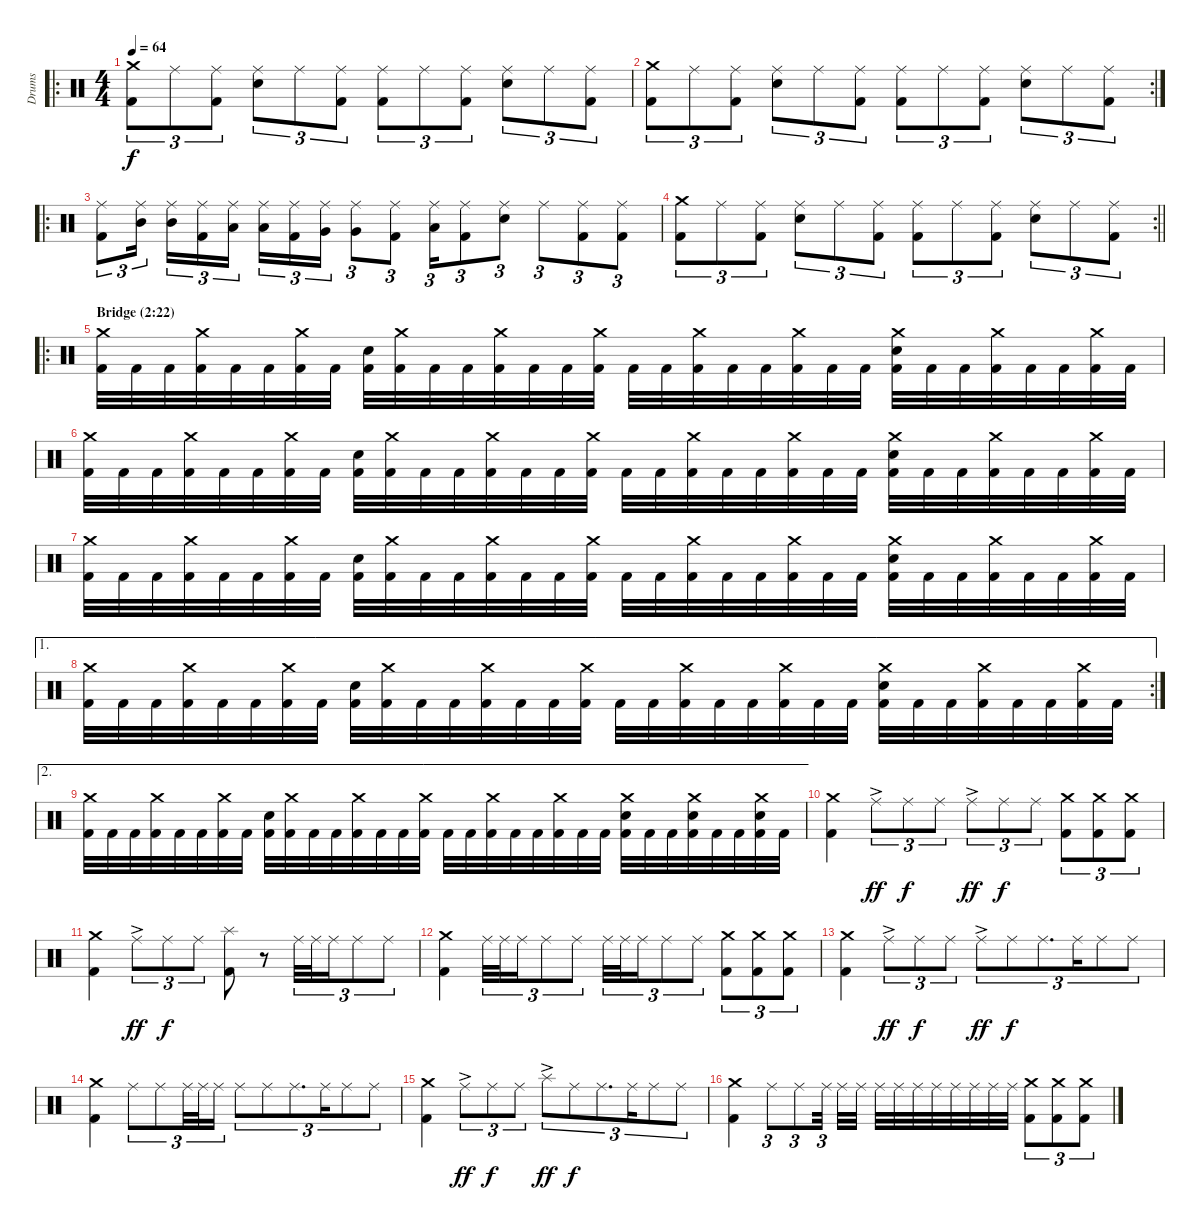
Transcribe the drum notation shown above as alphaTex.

\track ("Drums" "Drums") {instrument percussion}
\staff {score}
\articulation defaults
\ro
\ts (4 4)
\tempo 64
\clef neutral
\ks c
("Crash medium (hit)" "Kick (hit) 2").8{tu (3 2) dy f} "Ride (middle)".8{tu (3 2)} ("Ride (middle)" "Kick (hit) 2").8{tu (3 2)} ("Ride (middle)" "Electric Snare (hit)").8{tu (3 2)} "Ride (middle)".8{tu (3 2)} ("Ride (middle)" "Kick (hit) 2").8{tu (3 2)} ("Ride (middle)" "Kick (hit) 2").8{tu (3 2)} "Ride (middle)".8{tu (3 2)} ("Ride (middle)" "Kick (hit) 2").8{tu (3 2)} ("Ride (middle)" "Electric Snare (hit)").8{tu (3 2)} "Ride (middle)".8{tu (3 2)} ("Ride (middle)" "Kick (hit) 2").8{tu (3 2)} |
\rc 2
("Crash medium (hit)" "Kick (hit) 2").8{tu (3 2)} "Ride (middle)".8{tu (3 2)} ("Ride (middle)" "Kick (hit) 2").8{tu (3 2)} ("Ride (middle)" "Electric Snare (hit)").8{tu (3 2)} "Ride (middle)".8{tu (3 2)} ("Ride (middle)" "Kick (hit) 2").8{tu (3 2)} ("Ride (middle)" "Kick (hit) 2").8{tu (3 2)} "Ride (middle)".8{tu (3 2)} ("Ride (middle)" "Kick (hit) 2").8{tu (3 2)} ("Ride (middle)" "Electric Snare (hit)").8{tu (3 2)} "Ride (middle)".8{tu (3 2)} ("Ride (middle)" "Kick (hit) 2").8{tu (3 2)} |
\ro
("Ride (middle)" "Kick (hit) 2").8{tu (3 2)} ("Ride (middle)" "Mid Tom (hit)").16{tu (3 2) beam splitsecondary} ("Ride (middle)" "Mid Tom (hit)").16{tu (3 2)} ("Ride (middle)" "Kick (hit) 2").16{tu (3 2)} ("Ride (middle)" "Low Tom (hit)").16{tu (3 2)} ("Ride (middle)" "Low Tom (hit)").16{tu (3 2)} ("Ride (middle)" "Kick (hit) 2").16{tu (3 2)} ("Ride (middle)" "Very Low Tom (hit)").16{tu (3 2)} ("Ride (middle)" "Very Low Tom (hit)").8{tu (3 2)} ("Ride (middle)" "Kick (hit) 2").8{tu (3 2)} ("Ride (middle)" "Low Floor Tom (hit)").16{tu (3 2)} ("Ride (middle)" "Kick (hit) 2").8{tu (3 2)} ("Ride (middle)" "Electric Snare (hit)").8{tu (3 2)} "Ride (middle)".8{tu (3 2)} ("Ride (middle)" "Kick (hit) 2").8{tu (3 2)} ("Ride (middle)" "Kick (hit) 2").8{tu (3 2)} |
\rc 2
\barLineRight lightlight
("Crash medium (hit)" "Kick (hit) 2").8{tu (3 2)} "Ride (middle)".8{tu (3 2)} ("Ride (middle)" "Kick (hit) 2").8{tu (3 2)} ("Ride (middle)" "Electric Snare (hit)").8{tu (3 2)} "Ride (middle)".8{tu (3 2)} ("Ride (middle)" "Kick (hit) 2").8{tu (3 2)} ("Ride (middle)" "Kick (hit) 2").8{tu (3 2)} "Ride (middle)".8{tu (3 2)} ("Ride (middle)" "Kick (hit) 2").8{tu (3 2)} ("Ride (middle)" "Electric Snare (hit)").8{tu (3 2)} "Ride (middle)".8{tu (3 2)} ("Ride (middle)" "Kick (hit) 2").8{tu (3 2)} |
\ro
\section ("" "Bridge (2:22)")
("Crash medium (hit)" "Kick (hit) 2").32 "Kick (hit) 2".32 "Kick (hit) 2".32 ("Crash medium (hit)" "Kick (hit) 2").32 "Kick (hit) 2".32 "Kick (hit) 2".32 ("Crash medium (hit)" "Kick (hit) 2").32 "Kick (hit) 2".32 ("Electric Snare (hit)" "Kick (hit) 2").32 ("Crash medium (hit)" "Kick (hit) 2").32 "Kick (hit) 2".32 "Kick (hit) 2".32 ("Crash medium (hit)" "Kick (hit) 2").32 "Kick (hit) 2".32 "Kick (hit) 2".32 ("Crash medium (hit)" "Kick (hit) 2").32 "Kick (hit) 2".32 "Kick (hit) 2".32 ("Crash medium (hit)" "Kick (hit) 2").32 "Kick (hit) 2".32 "Kick (hit) 2".32 ("Crash medium (hit)" "Kick (hit) 2").32 "Kick (hit) 2".32 "Kick (hit) 2".32 ("Crash medium (hit)" "Electric Snare (hit)" "Kick (hit) 2").32 "Kick (hit) 2".32 "Kick (hit) 2".32 ("Crash medium (hit)" "Kick (hit) 2").32 "Kick (hit) 2".32 "Kick (hit) 2".32 ("Crash medium (hit)" "Kick (hit) 2").32 "Kick (hit) 2".32 |
("Crash medium (hit)" "Kick (hit) 2").32 "Kick (hit) 2".32 "Kick (hit) 2".32 ("Crash medium (hit)" "Kick (hit) 2").32 "Kick (hit) 2".32 "Kick (hit) 2".32 ("Crash medium (hit)" "Kick (hit) 2").32 "Kick (hit) 2".32 ("Electric Snare (hit)" "Kick (hit) 2").32 ("Crash medium (hit)" "Kick (hit) 2").32 "Kick (hit) 2".32 "Kick (hit) 2".32 ("Crash medium (hit)" "Kick (hit) 2").32 "Kick (hit) 2".32 "Kick (hit) 2".32 ("Crash medium (hit)" "Kick (hit) 2").32 "Kick (hit) 2".32 "Kick (hit) 2".32 ("Crash medium (hit)" "Kick (hit) 2").32 "Kick (hit) 2".32 "Kick (hit) 2".32 ("Crash medium (hit)" "Kick (hit) 2").32 "Kick (hit) 2".32 "Kick (hit) 2".32 ("Crash medium (hit)" "Electric Snare (hit)" "Kick (hit) 2").32 "Kick (hit) 2".32 "Kick (hit) 2".32 ("Crash medium (hit)" "Kick (hit) 2").32 "Kick (hit) 2".32 "Kick (hit) 2".32 ("Crash medium (hit)" "Kick (hit) 2").32 "Kick (hit) 2".32 |
("Crash medium (hit)" "Kick (hit) 2").32 "Kick (hit) 2".32 "Kick (hit) 2".32 ("Crash medium (hit)" "Kick (hit) 2").32 "Kick (hit) 2".32 "Kick (hit) 2".32 ("Crash medium (hit)" "Kick (hit) 2").32 "Kick (hit) 2".32 ("Electric Snare (hit)" "Kick (hit) 2").32 ("Crash medium (hit)" "Kick (hit) 2").32 "Kick (hit) 2".32 "Kick (hit) 2".32 ("Crash medium (hit)" "Kick (hit) 2").32 "Kick (hit) 2".32 "Kick (hit) 2".32 ("Crash medium (hit)" "Kick (hit) 2").32 "Kick (hit) 2".32 "Kick (hit) 2".32 ("Crash medium (hit)" "Kick (hit) 2").32 "Kick (hit) 2".32 "Kick (hit) 2".32 ("Crash medium (hit)" "Kick (hit) 2").32 "Kick (hit) 2".32 "Kick (hit) 2".32 ("Crash medium (hit)" "Electric Snare (hit)" "Kick (hit) 2").32 "Kick (hit) 2".32 "Kick (hit) 2".32 ("Crash medium (hit)" "Kick (hit) 2").32 "Kick (hit) 2".32 "Kick (hit) 2".32 ("Crash medium (hit)" "Kick (hit) 2").32 "Kick (hit) 2".32 |
\ae 1
\rc 2
("Crash medium (hit)" "Kick (hit) 2").32 "Kick (hit) 2".32 "Kick (hit) 2".32 ("Crash medium (hit)" "Kick (hit) 2").32 "Kick (hit) 2".32 "Kick (hit) 2".32 ("Crash medium (hit)" "Kick (hit) 2").32 "Kick (hit) 2".32 ("Electric Snare (hit)" "Kick (hit) 2").32 ("Crash medium (hit)" "Kick (hit) 2").32 "Kick (hit) 2".32 "Kick (hit) 2".32 ("Crash medium (hit)" "Kick (hit) 2").32 "Kick (hit) 2".32 "Kick (hit) 2".32 ("Crash medium (hit)" "Kick (hit) 2").32 "Kick (hit) 2".32 "Kick (hit) 2".32 ("Crash medium (hit)" "Kick (hit) 2").32 "Kick (hit) 2".32 "Kick (hit) 2".32 ("Crash medium (hit)" "Kick (hit) 2").32 "Kick (hit) 2".32 "Kick (hit) 2".32 ("Crash medium (hit)" "Electric Snare (hit)" "Kick (hit) 2").32 "Kick (hit) 2".32 "Kick (hit) 2".32 ("Crash medium (hit)" "Kick (hit) 2").32 "Kick (hit) 2".32 "Kick (hit) 2".32 ("Crash medium (hit)" "Kick (hit) 2").32 "Kick (hit) 2".32 |
\ae 2
("Crash medium (hit)" "Kick (hit) 2").32 "Kick (hit) 2".32 "Kick (hit) 2".32 ("Crash medium (hit)" "Kick (hit) 2").32 "Kick (hit) 2".32 "Kick (hit) 2".32 ("Crash medium (hit)" "Kick (hit) 2").32 "Kick (hit) 2".32 ("Electric Snare (hit)" "Kick (hit) 2").32 ("Crash medium (hit)" "Kick (hit) 2").32 "Kick (hit) 2".32 "Kick (hit) 2".32 ("Crash medium (hit)" "Kick (hit) 2").32 "Kick (hit) 2".32 "Kick (hit) 2".32 ("Crash medium (hit)" "Kick (hit) 2").32 "Kick (hit) 2".32 "Kick (hit) 2".32 ("Crash medium (hit)" "Kick (hit) 2").32 "Kick (hit) 2".32 "Kick (hit) 2".32 ("Crash medium (hit)" "Kick (hit) 2").32 "Kick (hit) 2".32 "Kick (hit) 2".32 ("Crash medium (hit)" "Electric Snare (hit)" "Kick (hit) 2").32 "Kick (hit) 2".32 "Kick (hit) 2".32 ("Crash medium (hit)" "Electric Snare (hit)" "Kick (hit) 2").32 "Kick (hit) 2".32 "Kick (hit) 2".32 ("Crash medium (hit)" "Electric Snare (hit)" "Kick (hit) 2").32 "Kick (hit) 2".32 |
("Crash medium (hit)" "Kick (hit) 2").4 "Ride (middle)"{ac}.8{tu (3 2) dy ff} "Ride (middle)".8{tu (3 2) dy f} "Ride (middle)".8{tu (3 2)} "Ride (middle)"{ac}.8{tu (3 2) dy ff} "Ride (middle)".8{tu (3 2) dy f} "Ride (middle)".8{tu (3 2)} ("Crash medium (hit)" "Kick (hit) 2").8{tu (3 2)} ("Crash medium (hit)" "Kick (hit) 2").8{tu (3 2)} ("Crash medium (hit)" "Kick (hit) 2").8{tu (3 2)} |
("Crash medium (hit)" "Kick (hit) 2").4 "Ride (middle)"{ac}.8{tu (3 2) dy ff} "Ride (middle)".8{tu (3 2) dy f} "Ride (middle)".8{tu (3 2)} ("Splash (hit)" "Kick (hit) 2").8 r.8 "Ride (middle)".32{tu (3 2)} "Ride (middle)".32{tu (3 2)} "Ride (middle)".16{tu (3 2)} "Ride (middle)".8{tu (3 2)} "Ride (middle)".8{tu (3 2)} |
("Crash medium (hit)" "Kick (hit) 2").4 "Ride (middle)".32{tu (3 2)} "Ride (middle)".32{tu (3 2)} "Ride (middle)".16{tu (3 2)} "Ride (middle)".8{tu (3 2)} "Ride (middle)".8{tu (3 2)} "Ride (middle)".32{tu (3 2)} "Ride (middle)".32{tu (3 2)} "Ride (middle)".16{tu (3 2)} "Ride (middle)".8{tu (3 2)} "Ride (middle)".8{tu (3 2)} ("Crash medium (hit)" "Kick (hit) 2").8{tu (3 2)} ("Crash medium (hit)" "Kick (hit) 2").8{tu (3 2)} ("Crash medium (hit)" "Kick (hit) 2").8{tu (3 2)} |
("Crash medium (hit)" "Kick (hit) 2").4 "Ride (middle)"{ac}.8{tu (3 2) dy ff} "Ride (middle)".8{tu (3 2) dy f} "Ride (middle)".8{tu (3 2)} "Ride (middle)"{ac}.8{tu (3 2) dy ff} "Ride (middle)".8{tu (3 2) dy f} "Ride (middle)".8{d tu (3 2)} "Ride (middle)".16{tu (3 2)} "Ride (middle)".8{tu (3 2)} "Ride (middle)".8{tu (3 2)} |
("Crash medium (hit)" "Kick (hit) 2").4 "Ride (middle)".8{tu (3 2)} "Ride (middle)".8{tu (3 2)} "Ride (middle)".32{tu (3 2)} "Ride (middle)".32{tu (3 2)} "Ride (middle)".16{tu (3 2)} "Ride (middle)".8{tu (3 2)} "Ride (middle)".8{tu (3 2)} "Ride (middle)".8{d tu (3 2)} "Ride (middle)".16{tu (3 2)} "Ride (middle)".8{tu (3 2)} "Ride (middle)".8{tu (3 2)} |
("Crash medium (hit)" "Kick (hit) 2").4 "Ride (middle)"{ac}.8{tu (3 2) dy ff} "Ride (middle)".8{tu (3 2) dy f} "Ride (middle)".8{tu (3 2)} "Splash (hit)"{ac}.8{tu (3 2) dy ff} "Ride (middle)".8{tu (3 2) dy f} "Ride (middle)".8{d tu (3 2)} "Ride (middle)".16{tu (3 2)} "Ride (middle)".8{tu (3 2)} "Ride (middle)".8{tu (3 2)} |
("Crash medium (hit)" "Kick (hit) 2").4 "Ride (middle)".8{tu (3 2)} "Ride (middle)".8{tu (3 2)} "Ride (middle)".32{tu (3 2) beam splitsecondary} "Ride (middle)".32 "Ride (middle)".32 "Ride (middle)".32 "Ride (middle)".32 "Ride (middle)".32 "Ride (middle)".32 "Ride (middle)".32 "Ride (middle)".32 "Ride (middle)".32 "Ride (middle)".32 ("Crash medium (hit)" "Kick (hit) 2").8{tu (3 2)} ("Crash medium (hit)" "Kick (hit) 2").8{tu (3 2)} ("Crash medium (hit)" "Kick (hit) 2").8{tu (3 2)}
